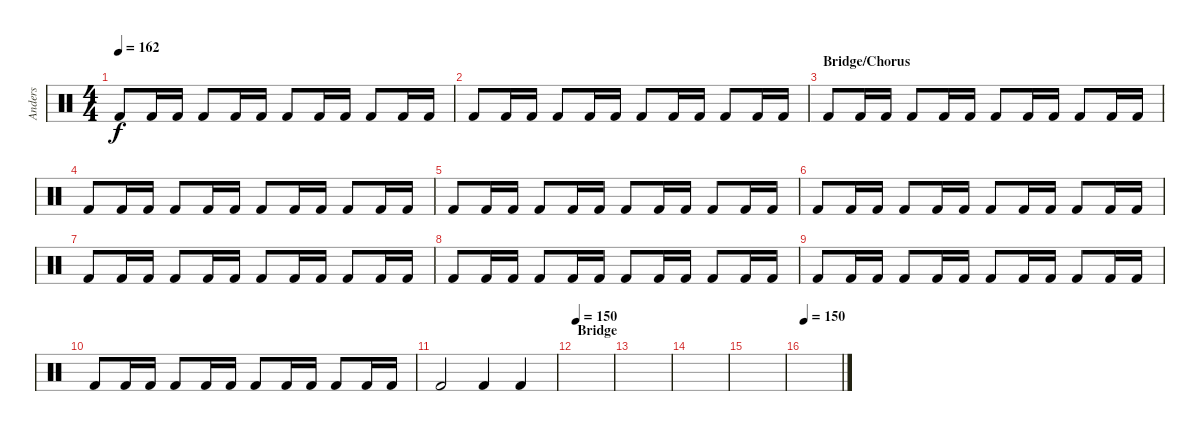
\track ("Anders" "Anders") {instrument percussion}
\staff {score}
\articulation defaults
\ts (4 4)
\tempo 162
\clef neutral
\ks c "Kick (hit) 2".8{dy f} "Kick (hit) 2".16 "Kick (hit) 2".16 "Kick (hit) 2".8 "Kick (hit) 2".16 "Kick (hit) 2".16 "Kick (hit) 2".8 "Kick (hit) 2".16 "Kick (hit) 2".16 "Kick (hit) 2".8 "Kick (hit) 2".16 "Kick (hit) 2".16
|
"Kick (hit) 2".8 "Kick (hit) 2".16 "Kick (hit) 2".16 "Kick (hit) 2".8 "Kick (hit) 2".16 "Kick (hit) 2".16 "Kick (hit) 2".8 "Kick (hit) 2".16 "Kick (hit) 2".16 "Kick (hit) 2".8 "Kick (hit) 2".16 "Kick (hit) 2".16 |
\section ("" "Bridge/Chorus")
"Kick (hit) 2".8 "Kick (hit) 2".16 "Kick (hit) 2".16 "Kick (hit) 2".8 "Kick (hit) 2".16 "Kick (hit) 2".16 "Kick (hit) 2".8 "Kick (hit) 2".16 "Kick (hit) 2".16 "Kick (hit) 2".8 "Kick (hit) 2".16 "Kick (hit) 2".16 |
"Kick (hit) 2".8 "Kick (hit) 2".16 "Kick (hit) 2".16 "Kick (hit) 2".8 "Kick (hit) 2".16 "Kick (hit) 2".16 "Kick (hit) 2".8 "Kick (hit) 2".16 "Kick (hit) 2".16 "Kick (hit) 2".8 "Kick (hit) 2".16 "Kick (hit) 2".16 |
"Kick (hit) 2".8 "Kick (hit) 2".16 "Kick (hit) 2".16 "Kick (hit) 2".8 "Kick (hit) 2".16 "Kick (hit) 2".16 "Kick (hit) 2".8 "Kick (hit) 2".16 "Kick (hit) 2".16 "Kick (hit) 2".8 "Kick (hit) 2".16 "Kick (hit) 2".16 |
"Kick (hit) 2".8 "Kick (hit) 2".16 "Kick (hit) 2".16 "Kick (hit) 2".8 "Kick (hit) 2".16 "Kick (hit) 2".16 "Kick (hit) 2".8 "Kick (hit) 2".16 "Kick (hit) 2".16 "Kick (hit) 2".8 "Kick (hit) 2".16 "Kick (hit) 2".16 |
"Kick (hit) 2".8 "Kick (hit) 2".16 "Kick (hit) 2".16 "Kick (hit) 2".8 "Kick (hit) 2".16 "Kick (hit) 2".16 "Kick (hit) 2".8 "Kick (hit) 2".16 "Kick (hit) 2".16 "Kick (hit) 2".8 "Kick (hit) 2".16 "Kick (hit) 2".16 |
"Kick (hit) 2".8 "Kick (hit) 2".16 "Kick (hit) 2".16 "Kick (hit) 2".8 "Kick (hit) 2".16 "Kick (hit) 2".16 "Kick (hit) 2".8 "Kick (hit) 2".16 "Kick (hit) 2".16 "Kick (hit) 2".8 "Kick (hit) 2".16 "Kick (hit) 2".16 |
"Kick (hit) 2".8 "Kick (hit) 2".16 "Kick (hit) 2".16 "Kick (hit) 2".8 "Kick (hit) 2".16 "Kick (hit) 2".16 "Kick (hit) 2".8 "Kick (hit) 2".16 "Kick (hit) 2".16 "Kick (hit) 2".8 "Kick (hit) 2".16 "Kick (hit) 2".16 |
"Kick (hit) 2".8 "Kick (hit) 2".16 "Kick (hit) 2".16 "Kick (hit) 2".8 "Kick (hit) 2".16 "Kick (hit) 2".16 "Kick (hit) 2".8 "Kick (hit) 2".16 "Kick (hit) 2".16 "Kick (hit) 2".8 "Kick (hit) 2".16 "Kick (hit) 2".16 |
"Kick (hit) 2".2 "Kick (hit) 2".4 "Kick (hit) 2".4 |
\section ("" "Bridge")
\tempo 150
|
|
|
|
\tempo 150
